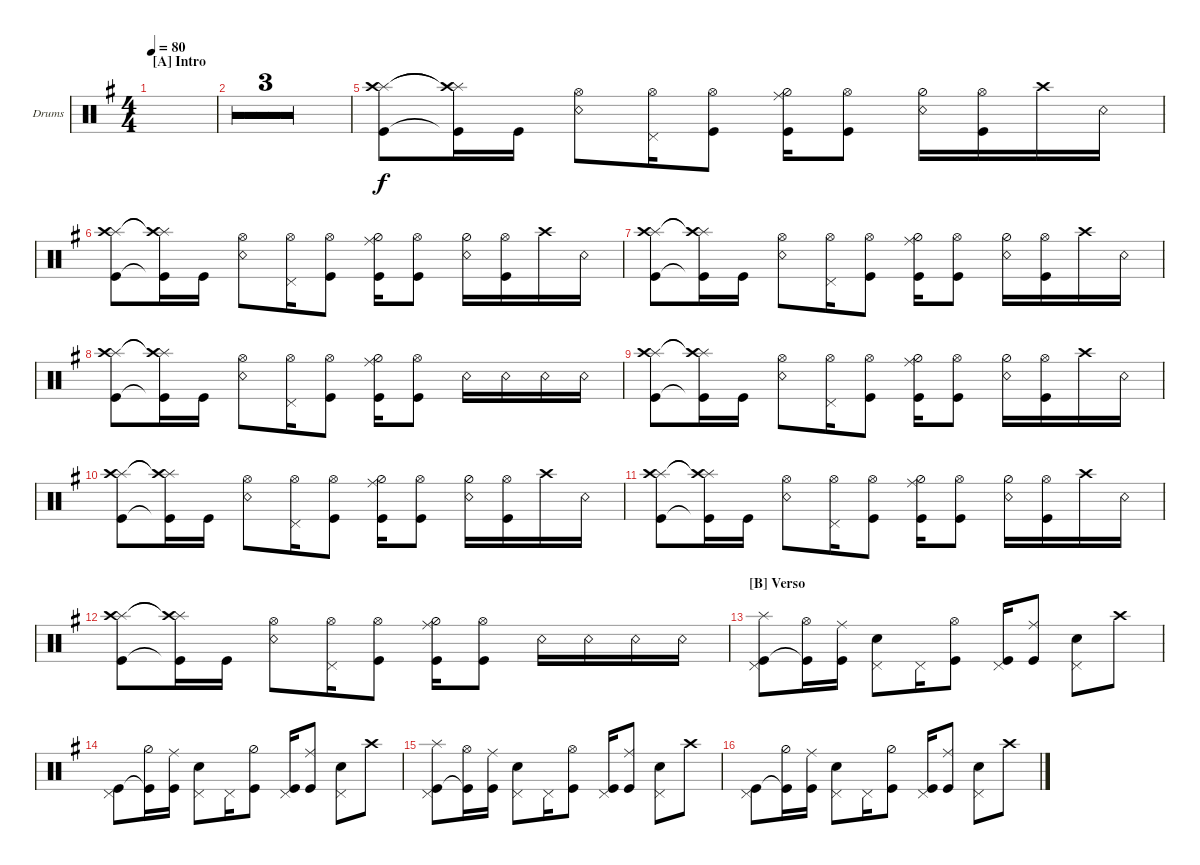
\defaultSystemsLayout 4
\bracketExtendMode groupsimilarinstruments
\firstSystemTrackNameOrientation horizontal
\otherSystemsTrackNameOrientation horizontal
\track ("Drum" "Drums") {multiBarRest instrument percussion}
\staff {score}
\articulation defaults
\ts (4 4)
\section ("A" "Intro")
\tempo 80
\clef neutral
\ks g
|
|
|
|
("Kick (hit)" "Splash (hit)" "Crash high (hit)").8 ("Kick (hit)"{t} "Splash (hit)"{t} "Crash high (hit)"{t}).16 "Kick (hit)".16 ("Snare (rim shot)" "Hi-Hat (open)").8 ("Pedal Hi-Hat (hit)" "Hi-Hat (open)").16 ("Kick (hit)" "Hi-Hat (open)").8 ("Kick (hit)" "Hi-Hat (half)" "Ride (middle)").16 ("Kick (hit)" "Hi-Hat (open)").8 ("Snare (rim shot)" "Hi-Hat (half)").16 ("Kick (hit)" "Hi-Hat (open)").16 "Crash high (hit)".16 "Snare (rim shot)".16 |
("Kick (hit)" "Splash (hit)" "Crash high (hit)").8 ("Kick (hit)"{t} "Splash (hit)"{t} "Crash high (hit)"{t}).16 "Kick (hit)".16 ("Snare (rim shot)" "Hi-Hat (open)").8 ("Pedal Hi-Hat (hit)" "Hi-Hat (open)").16 ("Kick (hit)" "Hi-Hat (open)").8 ("Kick (hit)" "Hi-Hat (half)" "Ride (middle)").16 ("Kick (hit)" "Hi-Hat (open)").8 ("Snare (rim shot)" "Hi-Hat (half)").16 ("Kick (hit)" "Hi-Hat (open)").16 "Crash high (hit)".16 "Snare (rim shot)".16 |
("Kick (hit)" "Splash (hit)" "Crash high (hit)").8 ("Kick (hit)"{t} "Splash (hit)"{t} "Crash high (hit)"{t}).16 "Kick (hit)".16 ("Snare (rim shot)" "Hi-Hat (open)").8 ("Pedal Hi-Hat (hit)" "Hi-Hat (open)").16 ("Kick (hit)" "Hi-Hat (open)").8 ("Kick (hit)" "Hi-Hat (half)" "Ride (middle)").16 ("Kick (hit)" "Hi-Hat (open)").8 ("Snare (rim shot)" "Hi-Hat (half)").16 ("Kick (hit)" "Hi-Hat (open)").16 "Crash high (hit)".16 "Snare (rim shot)".16 |
("Kick (hit)" "Splash (hit)" "Crash high (hit)").8 ("Kick (hit)"{t} "Splash (hit)"{t} "Crash high (hit)"{t}).16 "Kick (hit)".16 ("Snare (rim shot)" "Hi-Hat (open)").8 ("Pedal Hi-Hat (hit)" "Hi-Hat (open)").16 ("Kick (hit)" "Hi-Hat (open)").8 ("Kick (hit)" "Hi-Hat (half)" "Ride (middle)").16 ("Kick (hit)" "Hi-Hat (open)").8 "Snare (rim shot)".16 "Snare (rim shot)".16 "Snare (rim shot)".16 "Snare (rim shot)".16 |
("Kick (hit)" "Splash (hit)" "Crash high (hit)").8 ("Kick (hit)"{t} "Splash (hit)"{t} "Crash high (hit)"{t}).16 "Kick (hit)".16 ("Snare (rim shot)" "Hi-Hat (open)").8 ("Pedal Hi-Hat (hit)" "Hi-Hat (open)").16 ("Kick (hit)" "Hi-Hat (open)").8 ("Kick (hit)" "Hi-Hat (half)" "Ride (middle)").16 ("Kick (hit)" "Hi-Hat (open)").8 ("Snare (rim shot)" "Hi-Hat (half)").16 ("Kick (hit)" "Hi-Hat (open)").16 "Crash high (hit)".16 "Snare (rim shot)".16 |
("Kick (hit)" "Splash (hit)" "Crash high (hit)").8 ("Kick (hit)"{t} "Splash (hit)"{t} "Crash high (hit)"{t}).16 "Kick (hit)".16 ("Snare (rim shot)" "Hi-Hat (open)").8 ("Pedal Hi-Hat (hit)" "Hi-Hat (open)").16 ("Kick (hit)" "Hi-Hat (open)").8 ("Kick (hit)" "Hi-Hat (half)" "Ride (middle)").16 ("Kick (hit)" "Hi-Hat (open)").8 ("Snare (rim shot)" "Hi-Hat (half)").16 ("Kick (hit)" "Hi-Hat (open)").16 "Crash high (hit)".16 "Snare (rim shot)".16 |
("Kick (hit)" "Splash (hit)" "Crash high (hit)").8 ("Kick (hit)"{t} "Splash (hit)"{t} "Crash high (hit)"{t}).16 "Kick (hit)".16 ("Snare (rim shot)" "Hi-Hat (open)").8 ("Pedal Hi-Hat (hit)" "Hi-Hat (open)").16 ("Kick (hit)" "Hi-Hat (open)").8 ("Kick (hit)" "Hi-Hat (half)" "Ride (middle)").16 ("Kick (hit)" "Hi-Hat (open)").8 ("Snare (rim shot)" "Hi-Hat (half)").16 ("Kick (hit)" "Hi-Hat (open)").16 "Crash high (hit)".16 "Snare (rim shot)".16 |
("Kick (hit)" "Splash (hit)" "Crash high (hit)").8 ("Kick (hit)"{t} "Splash (hit)"{t} "Crash high (hit)"{t}).16 "Kick (hit)".16 ("Snare (rim shot)" "Hi-Hat (open)").8 ("Pedal Hi-Hat (hit)" "Hi-Hat (open)").16 ("Kick (hit)" "Hi-Hat (open)").8 ("Kick (hit)" "Hi-Hat (half)" "Ride (middle)").16 ("Kick (hit)" "Hi-Hat (open)").8 "Snare (rim shot)".16 "Snare (rim shot)".16 "Snare (rim shot)".16 "Snare (rim shot)".16 |
\section ("B" "Verso")
("Kick (hit)" "Pedal Hi-Hat (hit)" "Splash (hit)").8 ("Kick (hit)"{t} "Hi-Hat (open)").16 ("Kick (hit)" "Ride (middle)").16 ("Snare (hit) 2" "Pedal Hi-Hat (hit)").8 "Pedal Hi-Hat (hit)".16 ("Kick (hit)" "Hi-Hat (open)").8 ("Kick (hit)" "Pedal Hi-Hat (hit)").16 ("Kick (hit)" "Ride (middle)").8 ("Snare (hit) 2" "Pedal Hi-Hat (hit)").8 "Crash high (hit)".8 |
("Kick (hit)" "Pedal Hi-Hat (hit)").8 ("Kick (hit)"{t} "Hi-Hat (half)").16 ("Kick (hit)" "Ride (middle)").16 ("Snare (hit) 2" "Pedal Hi-Hat (hit)").8 "Pedal Hi-Hat (hit)".16 ("Kick (hit)" "Hi-Hat (half)").8 ("Kick (hit)" "Pedal Hi-Hat (hit)").16 ("Kick (hit)" "Ride (middle)").8 ("Snare (hit) 2" "Pedal Hi-Hat (hit)").8 "Crash high (hit)".8 |
("Kick (hit)" "Pedal Hi-Hat (hit)" "Splash (hit)").8 ("Kick (hit)"{t} "Hi-Hat (open)").16 ("Kick (hit)" "Ride (middle)").16 ("Snare (hit) 2" "Pedal Hi-Hat (hit)").8 "Pedal Hi-Hat (hit)".16 ("Kick (hit)" "Hi-Hat (open)").8 ("Kick (hit)" "Pedal Hi-Hat (hit)").16 ("Kick (hit)" "Ride (middle)").8 ("Snare (hit) 2" "Pedal Hi-Hat (hit)").8 "Crash high (hit)".8 |
("Kick (hit)" "Pedal Hi-Hat (hit)").8 ("Kick (hit)"{t} "Hi-Hat (half)").16 ("Kick (hit)" "Ride (middle)").16 ("Snare (hit) 2" "Pedal Hi-Hat (hit)").8 "Pedal Hi-Hat (hit)".16 ("Kick (hit)" "Hi-Hat (half)").8 ("Kick (hit)" "Pedal Hi-Hat (hit)").16 ("Kick (hit)" "Ride (middle)").8 ("Snare (hit) 2" "Pedal Hi-Hat (hit)").8 "Crash high (hit)".8
